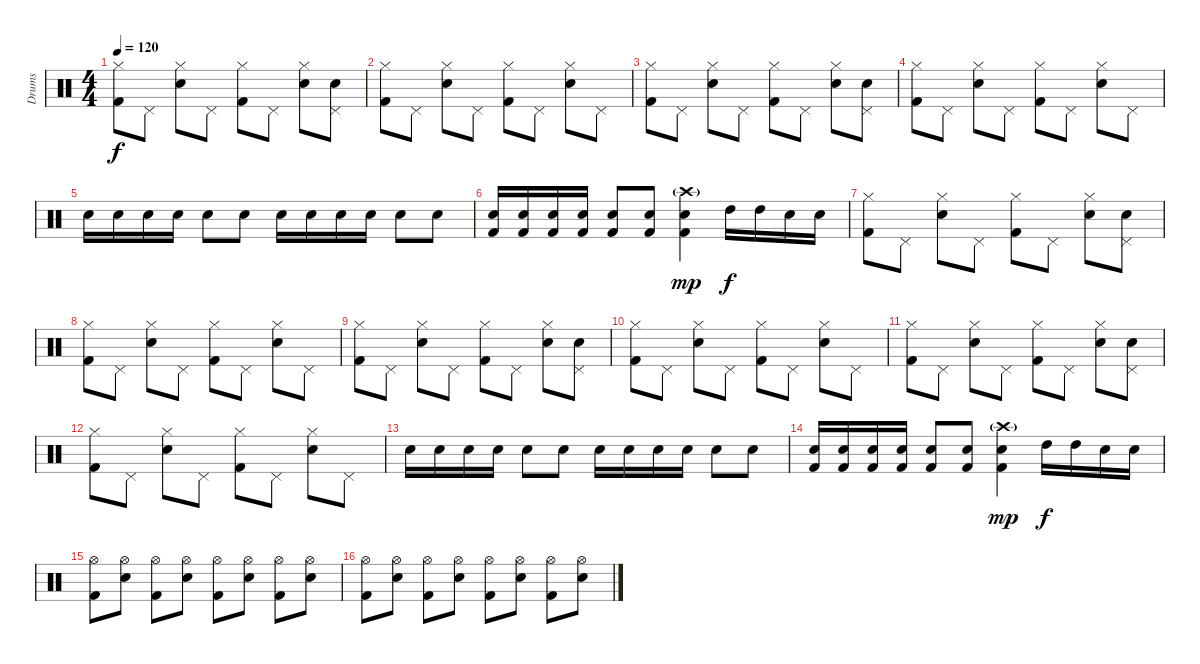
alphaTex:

\track ("Drums" "Drums") {instrument percussion}
\staff {score}
\articulation defaults
\ts (4 4)
\tempo 120
\clef neutral
\ks c
("Hi-Hat (closed)" "Kick (hit) 2").8{dy f} "Pedal Hi-Hat (hit)".8 ("Hi-Hat (closed)" "Electric Snare (hit)").8 "Pedal Hi-Hat (hit)".8 ("Hi-Hat (closed)" "Kick (hit) 2").8 "Pedal Hi-Hat (hit)".8 ("Hi-Hat (closed)" "Electric Snare (hit)").8 ("Pedal Hi-Hat (hit)" "Electric Snare (hit)").8 |
("Hi-Hat (closed)" "Kick (hit) 2").8 "Pedal Hi-Hat (hit)".8 ("Hi-Hat (closed)" "Electric Snare (hit)").8 "Pedal Hi-Hat (hit)".8 ("Hi-Hat (closed)" "Kick (hit) 2").8 "Pedal Hi-Hat (hit)".8 ("Hi-Hat (closed)" "Electric Snare (hit)").8 "Pedal Hi-Hat (hit)".8 |
("Hi-Hat (closed)" "Kick (hit) 2").8 "Pedal Hi-Hat (hit)".8 ("Hi-Hat (closed)" "Electric Snare (hit)").8 "Pedal Hi-Hat (hit)".8 ("Hi-Hat (closed)" "Kick (hit) 2").8 "Pedal Hi-Hat (hit)".8 ("Hi-Hat (closed)" "Electric Snare (hit)").8 ("Pedal Hi-Hat (hit)" "Electric Snare (hit)").8 |
("Hi-Hat (closed)" "Kick (hit) 2").8 "Pedal Hi-Hat (hit)".8 ("Hi-Hat (closed)" "Electric Snare (hit)").8 "Pedal Hi-Hat (hit)".8 ("Hi-Hat (closed)" "Kick (hit) 2").8 "Pedal Hi-Hat (hit)".8 ("Hi-Hat (closed)" "Electric Snare (hit)").8 "Pedal Hi-Hat (hit)".8 |
"Electric Snare (hit)".16 "Electric Snare (hit)".16 "Electric Snare (hit)".16 "Electric Snare (hit)".16 "Electric Snare (hit)".8 "Electric Snare (hit)".8 "Electric Snare (hit)".16 "Electric Snare (hit)".16 "Electric Snare (hit)".16 "Electric Snare (hit)".16 "Electric Snare (hit)".8 "Electric Snare (hit)".8 |
("Electric Snare (hit)" "Kick (hit) 2").16 ("Electric Snare (hit)" "Kick (hit) 2").16 ("Electric Snare (hit)" "Kick (hit) 2").16 ("Electric Snare (hit)" "Kick (hit) 2").16 ("Electric Snare (hit)" "Kick (hit) 2").8 ("Electric Snare (hit)" "Kick (hit) 2").8 ("Crash high (hit)"{g} "Electric Snare (hit)" "Kick (hit) 2").4{dy mp} "High Tom (hit)".16{dy f} "High Tom (hit)".16 "Electric Snare (hit)".16 "Electric Snare (hit)".16 |
("Hi-Hat (closed)" "Kick (hit) 2").8 "Pedal Hi-Hat (hit)".8 ("Hi-Hat (closed)" "Electric Snare (hit)").8 "Pedal Hi-Hat (hit)".8 ("Hi-Hat (closed)" "Kick (hit) 2").8 "Pedal Hi-Hat (hit)".8 ("Hi-Hat (closed)" "Electric Snare (hit)").8 ("Pedal Hi-Hat (hit)" "Electric Snare (hit)").8 |
("Hi-Hat (closed)" "Kick (hit) 2").8 "Pedal Hi-Hat (hit)".8 ("Hi-Hat (closed)" "Electric Snare (hit)").8 "Pedal Hi-Hat (hit)".8 ("Hi-Hat (closed)" "Kick (hit) 2").8 "Pedal Hi-Hat (hit)".8 ("Hi-Hat (closed)" "Electric Snare (hit)").8 "Pedal Hi-Hat (hit)".8 |
("Hi-Hat (closed)" "Kick (hit) 2").8 "Pedal Hi-Hat (hit)".8 ("Hi-Hat (closed)" "Electric Snare (hit)").8 "Pedal Hi-Hat (hit)".8 ("Hi-Hat (closed)" "Kick (hit) 2").8 "Pedal Hi-Hat (hit)".8 ("Hi-Hat (closed)" "Electric Snare (hit)").8 ("Pedal Hi-Hat (hit)" "Electric Snare (hit)").8 |
("Hi-Hat (closed)" "Kick (hit) 2").8 "Pedal Hi-Hat (hit)".8 ("Hi-Hat (closed)" "Electric Snare (hit)").8 "Pedal Hi-Hat (hit)".8 ("Hi-Hat (closed)" "Kick (hit) 2").8 "Pedal Hi-Hat (hit)".8 ("Hi-Hat (closed)" "Electric Snare (hit)").8 "Pedal Hi-Hat (hit)".8 |
("Hi-Hat (closed)" "Kick (hit) 2").8 "Pedal Hi-Hat (hit)".8 ("Hi-Hat (closed)" "Electric Snare (hit)").8 "Pedal Hi-Hat (hit)".8 ("Hi-Hat (closed)" "Kick (hit) 2").8 "Pedal Hi-Hat (hit)".8 ("Hi-Hat (closed)" "Electric Snare (hit)").8 ("Pedal Hi-Hat (hit)" "Electric Snare (hit)").8 |
("Hi-Hat (closed)" "Kick (hit) 2").8 "Pedal Hi-Hat (hit)".8 ("Hi-Hat (closed)" "Electric Snare (hit)").8 "Pedal Hi-Hat (hit)".8 ("Hi-Hat (closed)" "Kick (hit) 2").8 "Pedal Hi-Hat (hit)".8 ("Hi-Hat (closed)" "Electric Snare (hit)").8 "Pedal Hi-Hat (hit)".8 |
"Electric Snare (hit)".16 "Electric Snare (hit)".16 "Electric Snare (hit)".16 "Electric Snare (hit)".16 "Electric Snare (hit)".8 "Electric Snare (hit)".8 "Electric Snare (hit)".16 "Electric Snare (hit)".16 "Electric Snare (hit)".16 "Electric Snare (hit)".16 "Electric Snare (hit)".8 "Electric Snare (hit)".8 |
("Electric Snare (hit)" "Kick (hit) 2").16 ("Electric Snare (hit)" "Kick (hit) 2").16 ("Electric Snare (hit)" "Kick (hit) 2").16 ("Electric Snare (hit)" "Kick (hit) 2").16 ("Electric Snare (hit)" "Kick (hit) 2").8 ("Electric Snare (hit)" "Kick (hit) 2").8 ("Crash high (hit)"{g} "Electric Snare (hit)" "Kick (hit) 2").4{dy mp} "High Tom (hit)".16{dy f} "High Tom (hit)".16 "Electric Snare (hit)".16 "Electric Snare (hit)".16 |
("Hi-Hat (open)" "Kick (hit) 2").8 ("Hi-Hat (open)" "Electric Snare (hit)").8 ("Hi-Hat (open)" "Kick (hit) 2").8 ("Hi-Hat (open)" "Electric Snare (hit)").8 ("Hi-Hat (open)" "Kick (hit) 2").8 ("Hi-Hat (open)" "Electric Snare (hit)").8 ("Hi-Hat (open)" "Kick (hit) 2").8 ("Hi-Hat (open)" "Electric Snare (hit)").8 |
("Hi-Hat (open)" "Kick (hit) 2").8 ("Hi-Hat (open)" "Electric Snare (hit)").8 ("Hi-Hat (open)" "Kick (hit) 2").8 ("Hi-Hat (open)" "Electric Snare (hit)").8 ("Hi-Hat (open)" "Kick (hit) 2").8 ("Hi-Hat (open)" "Electric Snare (hit)").8 ("Hi-Hat (open)" "Kick (hit) 2").8 ("Hi-Hat (open)" "Electric Snare (hit)").8
